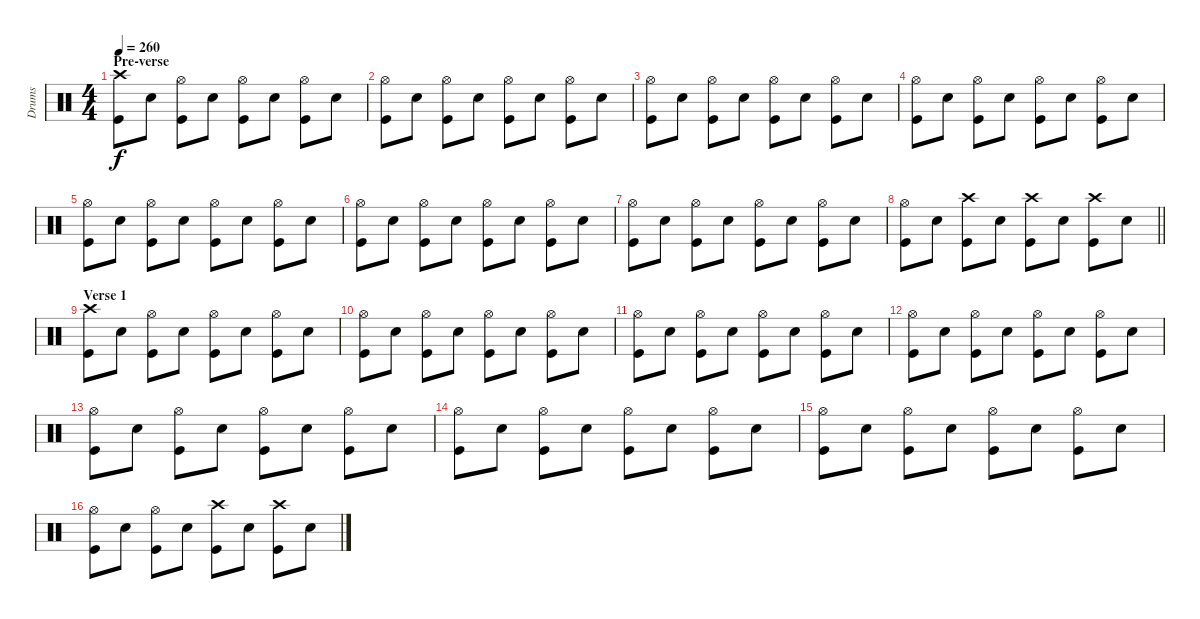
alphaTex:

\track ("Drums" "Drums") {instrument percussion}
\staff {score}
\articulation defaults
\ts (4 4)
\section ("" "Pre-verse")
\tempo 260
\clef neutral
\ks c
("Kick (hit)" "Crash high (hit)").8{dy f} "Snare (hit) 2".8 ("Kick (hit)" "Hi-Hat (open)").8 "Snare (hit) 2".8 ("Kick (hit)" "Hi-Hat (open)").8 "Snare (hit) 2".8 ("Kick (hit)" "Hi-Hat (open)").8 "Snare (hit) 2".8 |
("Kick (hit)" "Hi-Hat (open)").8 "Snare (hit) 2".8 ("Kick (hit)" "Hi-Hat (open)").8 "Snare (hit) 2".8 ("Kick (hit)" "Hi-Hat (open)").8 "Snare (hit) 2".8 ("Kick (hit)" "Hi-Hat (open)").8 "Snare (hit) 2".8 |
("Kick (hit)" "Hi-Hat (open)").8 "Snare (hit) 2".8 ("Kick (hit)" "Hi-Hat (open)").8 "Snare (hit) 2".8 ("Kick (hit)" "Hi-Hat (open)").8 "Snare (hit) 2".8 ("Kick (hit)" "Hi-Hat (open)").8 "Snare (hit) 2".8 |
("Kick (hit)" "Hi-Hat (open)").8 "Snare (hit) 2".8 ("Kick (hit)" "Hi-Hat (open)").8 "Snare (hit) 2".8 ("Kick (hit)" "Hi-Hat (open)").8 "Snare (hit) 2".8 ("Kick (hit)" "Hi-Hat (open)").8 "Snare (hit) 2".8 |
("Kick (hit)" "Hi-Hat (open)").8 "Snare (hit) 2".8 ("Kick (hit)" "Hi-Hat (open)").8 "Snare (hit) 2".8 ("Kick (hit)" "Hi-Hat (open)").8 "Snare (hit) 2".8 ("Kick (hit)" "Hi-Hat (open)").8 "Snare (hit) 2".8 |
("Kick (hit)" "Hi-Hat (open)").8 "Snare (hit) 2".8 ("Kick (hit)" "Hi-Hat (open)").8 "Snare (hit) 2".8 ("Kick (hit)" "Hi-Hat (open)").8 "Snare (hit) 2".8 ("Kick (hit)" "Hi-Hat (open)").8 "Snare (hit) 2".8 |
("Kick (hit)" "Hi-Hat (open)").8 "Snare (hit) 2".8 ("Kick (hit)" "Hi-Hat (open)").8 "Snare (hit) 2".8 ("Kick (hit)" "Hi-Hat (open)").8 "Snare (hit) 2".8 ("Kick (hit)" "Hi-Hat (open)").8 "Snare (hit) 2".8 |
\barLineRight lightlight
("Kick (hit)" "Hi-Hat (open)").8 "Snare (hit) 2".8 ("Kick (hit)" "Crash high (hit)").8 "Snare (hit) 2".8 ("Kick (hit)" "Crash high (hit)").8 "Snare (hit) 2".8 ("Kick (hit)" "Crash high (hit)").8 "Snare (hit) 2".8 |
\section ("" "Verse 1")
("Kick (hit)" "Crash high (hit)").8 "Snare (hit) 2".8 ("Kick (hit)" "Hi-Hat (open)").8 "Snare (hit) 2".8 ("Kick (hit)" "Hi-Hat (open)").8 "Snare (hit) 2".8 ("Kick (hit)" "Hi-Hat (open)").8 "Snare (hit) 2".8 |
("Kick (hit)" "Hi-Hat (open)").8 "Snare (hit) 2".8 ("Kick (hit)" "Hi-Hat (open)").8 "Snare (hit) 2".8 ("Kick (hit)" "Hi-Hat (open)").8 "Snare (hit) 2".8 ("Kick (hit)" "Hi-Hat (open)").8 "Snare (hit) 2".8 |
("Kick (hit)" "Hi-Hat (open)").8 "Snare (hit) 2".8 ("Kick (hit)" "Hi-Hat (open)").8 "Snare (hit) 2".8 ("Kick (hit)" "Hi-Hat (open)").8 "Snare (hit) 2".8 ("Kick (hit)" "Hi-Hat (open)").8 "Snare (hit) 2".8 |
("Kick (hit)" "Hi-Hat (open)").8 "Snare (hit) 2".8 ("Kick (hit)" "Hi-Hat (open)").8 "Snare (hit) 2".8 ("Kick (hit)" "Hi-Hat (open)").8 "Snare (hit) 2".8 ("Kick (hit)" "Hi-Hat (open)").8 "Snare (hit) 2".8 |
("Kick (hit)" "Hi-Hat (open)").8 "Snare (hit) 2".8 ("Kick (hit)" "Hi-Hat (open)").8 "Snare (hit) 2".8 ("Kick (hit)" "Hi-Hat (open)").8 "Snare (hit) 2".8 ("Kick (hit)" "Hi-Hat (open)").8 "Snare (hit) 2".8 |
("Kick (hit)" "Hi-Hat (open)").8 "Snare (hit) 2".8 ("Kick (hit)" "Hi-Hat (open)").8 "Snare (hit) 2".8 ("Kick (hit)" "Hi-Hat (open)").8 "Snare (hit) 2".8 ("Kick (hit)" "Hi-Hat (open)").8 "Snare (hit) 2".8 |
("Kick (hit)" "Hi-Hat (open)").8 "Snare (hit) 2".8 ("Kick (hit)" "Hi-Hat (open)").8 "Snare (hit) 2".8 ("Kick (hit)" "Hi-Hat (open)").8 "Snare (hit) 2".8 ("Kick (hit)" "Hi-Hat (open)").8 "Snare (hit) 2".8 |
("Kick (hit)" "Hi-Hat (open)").8 "Snare (hit) 2".8 ("Kick (hit)" "Hi-Hat (open)").8 "Snare (hit) 2".8 ("Kick (hit)" "Crash high (hit)").8 "Snare (hit) 2".8 ("Kick (hit)" "Crash high (hit)").8 "Snare (hit) 2".8
